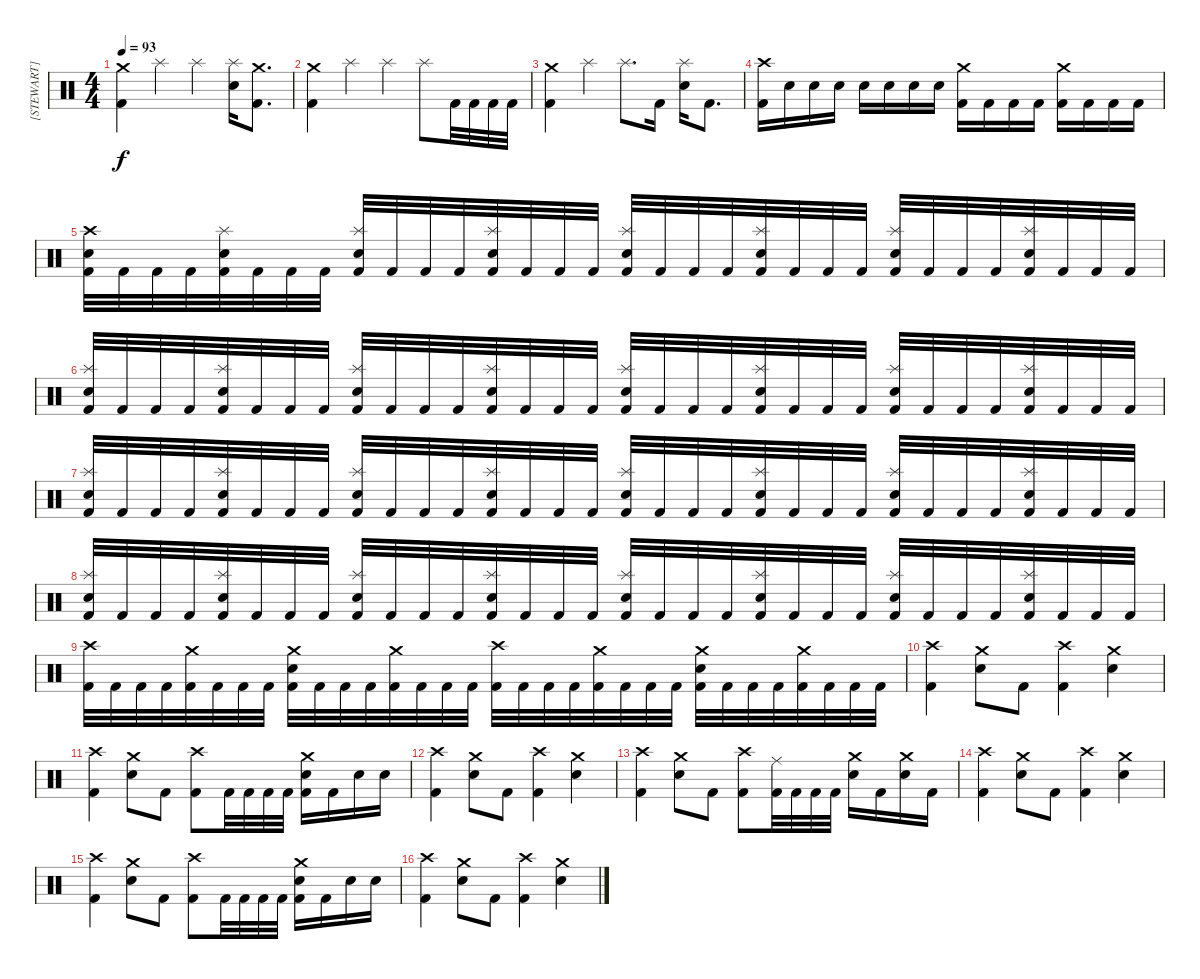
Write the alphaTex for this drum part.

\track ("[STEWART]" "[STEWART]") {instrument percussion}
\staff {score}
\articulation defaults
\ts (4 4)
\tempo 93
\clef neutral
\ks c
("Crash medium (hit)" "Kick (hit) 2").4{dy f} "Splash (hit)".4 "Splash (hit)".4 ("Splash (hit)" "Electric Snare (hit)").16 ("Crash medium (hit)" "Kick (hit) 2").8{d} |
("Crash medium (hit)" "Kick (hit) 2").4 "Splash (hit)".4 "Splash (hit)".4 "Splash (hit)".8 "Kick (hit) 2".32 "Kick (hit) 2".32 "Kick (hit) 2".32 "Kick (hit) 2".32 |
("Crash medium (hit)" "Kick (hit) 2").4 "Splash (hit)".4 "Splash (hit)".8{d} "Kick (hit) 2".16 ("Splash (hit)" "Electric Snare (hit)").16 "Kick (hit) 2".8{d} |
("Crash high (hit)" "Kick (hit) 2").16 "Electric Snare (hit)".16 "Electric Snare (hit)".16 "Electric Snare (hit)".16 "Electric Snare (hit)".16 "Electric Snare (hit)".16 "Electric Snare (hit)".16 "Electric Snare (hit)".16 ("Crash medium (hit)" "Kick (hit) 2").16 "Kick (hit) 2".16 "Kick (hit) 2".16 "Kick (hit) 2".16 ("Crash medium (hit)" "Kick (hit) 2").16 "Kick (hit) 2".16 "Kick (hit) 2".16 "Kick (hit) 2".16 |
("Crash high (hit)" "Electric Snare (hit)" "Kick (hit) 2").32 "Kick (hit) 2".32 "Kick (hit) 2".32 "Kick (hit) 2".32 ("Splash (hit)" "Electric Snare (hit)" "Kick (hit) 2").32 "Kick (hit) 2".32 "Kick (hit) 2".32 "Kick (hit) 2".32 ("Splash (hit)" "Electric Snare (hit)" "Kick (hit) 2").32 "Kick (hit) 2".32 "Kick (hit) 2".32 "Kick (hit) 2".32 ("Splash (hit)" "Electric Snare (hit)" "Kick (hit) 2").32 "Kick (hit) 2".32 "Kick (hit) 2".32 "Kick (hit) 2".32 ("Splash (hit)" "Electric Snare (hit)" "Kick (hit) 2").32 "Kick (hit) 2".32 "Kick (hit) 2".32 "Kick (hit) 2".32 ("Splash (hit)" "Electric Snare (hit)" "Kick (hit) 2").32 "Kick (hit) 2".32 "Kick (hit) 2".32 "Kick (hit) 2".32 ("Splash (hit)" "Electric Snare (hit)" "Kick (hit) 2").32 "Kick (hit) 2".32 "Kick (hit) 2".32 "Kick (hit) 2".32 ("Splash (hit)" "Electric Snare (hit)" "Kick (hit) 2").32 "Kick (hit) 2".32 "Kick (hit) 2".32 "Kick (hit) 2".32 |
("Splash (hit)" "Electric Snare (hit)" "Kick (hit) 2").32 "Kick (hit) 2".32 "Kick (hit) 2".32 "Kick (hit) 2".32 ("Splash (hit)" "Electric Snare (hit)" "Kick (hit) 2").32 "Kick (hit) 2".32 "Kick (hit) 2".32 "Kick (hit) 2".32 ("Splash (hit)" "Electric Snare (hit)" "Kick (hit) 2").32 "Kick (hit) 2".32 "Kick (hit) 2".32 "Kick (hit) 2".32 ("Splash (hit)" "Electric Snare (hit)" "Kick (hit) 2").32 "Kick (hit) 2".32 "Kick (hit) 2".32 "Kick (hit) 2".32 ("Splash (hit)" "Electric Snare (hit)" "Kick (hit) 2").32 "Kick (hit) 2".32 "Kick (hit) 2".32 "Kick (hit) 2".32 ("Splash (hit)" "Electric Snare (hit)" "Kick (hit) 2").32 "Kick (hit) 2".32 "Kick (hit) 2".32 "Kick (hit) 2".32 ("Splash (hit)" "Electric Snare (hit)" "Kick (hit) 2").32 "Kick (hit) 2".32 "Kick (hit) 2".32 "Kick (hit) 2".32 ("Splash (hit)" "Electric Snare (hit)" "Kick (hit) 2").32 "Kick (hit) 2".32 "Kick (hit) 2".32 "Kick (hit) 2".32 |
("Splash (hit)" "Electric Snare (hit)" "Kick (hit) 2").32 "Kick (hit) 2".32 "Kick (hit) 2".32 "Kick (hit) 2".32 ("Splash (hit)" "Electric Snare (hit)" "Kick (hit) 2").32 "Kick (hit) 2".32 "Kick (hit) 2".32 "Kick (hit) 2".32 ("Splash (hit)" "Electric Snare (hit)" "Kick (hit) 2").32 "Kick (hit) 2".32 "Kick (hit) 2".32 "Kick (hit) 2".32 ("Splash (hit)" "Electric Snare (hit)" "Kick (hit) 2").32 "Kick (hit) 2".32 "Kick (hit) 2".32 "Kick (hit) 2".32 ("Splash (hit)" "Electric Snare (hit)" "Kick (hit) 2").32 "Kick (hit) 2".32 "Kick (hit) 2".32 "Kick (hit) 2".32 ("Splash (hit)" "Electric Snare (hit)" "Kick (hit) 2").32 "Kick (hit) 2".32 "Kick (hit) 2".32 "Kick (hit) 2".32 ("Splash (hit)" "Electric Snare (hit)" "Kick (hit) 2").32 "Kick (hit) 2".32 "Kick (hit) 2".32 "Kick (hit) 2".32 ("Splash (hit)" "Electric Snare (hit)" "Kick (hit) 2").32 "Kick (hit) 2".32 "Kick (hit) 2".32 "Kick (hit) 2".32 |
("Splash (hit)" "Electric Snare (hit)" "Kick (hit) 2").32 "Kick (hit) 2".32 "Kick (hit) 2".32 "Kick (hit) 2".32 ("Splash (hit)" "Electric Snare (hit)" "Kick (hit) 2").32 "Kick (hit) 2".32 "Kick (hit) 2".32 "Kick (hit) 2".32 ("Splash (hit)" "Electric Snare (hit)" "Kick (hit) 2").32 "Kick (hit) 2".32 "Kick (hit) 2".32 "Kick (hit) 2".32 ("Splash (hit)" "Electric Snare (hit)" "Kick (hit) 2").32 "Kick (hit) 2".32 "Kick (hit) 2".32 "Kick (hit) 2".32 ("Splash (hit)" "Electric Snare (hit)" "Kick (hit) 2").32 "Kick (hit) 2".32 "Kick (hit) 2".32 "Kick (hit) 2".32 ("Splash (hit)" "Electric Snare (hit)" "Kick (hit) 2").32 "Kick (hit) 2".32 "Kick (hit) 2".32 "Kick (hit) 2".32 ("Splash (hit)" "Electric Snare (hit)" "Kick (hit) 2").32 "Kick (hit) 2".32 "Kick (hit) 2".32 "Kick (hit) 2".32 ("Splash (hit)" "Electric Snare (hit)" "Kick (hit) 2").32 "Kick (hit) 2".32 "Kick (hit) 2".32 "Kick (hit) 2".32 |
("Crash high (hit)" "Kick (hit) 2").32 "Kick (hit) 2".32 "Kick (hit) 2".32 "Kick (hit) 2".32 ("Crash medium (hit)" "Kick (hit) 2").32 "Kick (hit) 2".32 "Kick (hit) 2".32 "Kick (hit) 2".32 ("Crash medium (hit)" "Electric Snare (hit)" "Kick (hit) 2").32 "Kick (hit) 2".32 "Kick (hit) 2".32 "Kick (hit) 2".32 ("Crash medium (hit)" "Kick (hit) 2").32 "Kick (hit) 2".32 "Kick (hit) 2".32 "Kick (hit) 2".32 ("Crash high (hit)" "Kick (hit) 2").32 "Kick (hit) 2".32 "Kick (hit) 2".32 "Kick (hit) 2".32 ("Crash medium (hit)" "Kick (hit) 2").32 "Kick (hit) 2".32 "Kick (hit) 2".32 "Kick (hit) 2".32 ("Crash medium (hit)" "Electric Snare (hit)" "Kick (hit) 2").32 "Kick (hit) 2".32 "Kick (hit) 2".32 "Kick (hit) 2".32 ("Crash medium (hit)" "Kick (hit) 2").32 "Kick (hit) 2".32 "Kick (hit) 2".32 "Kick (hit) 2".32 |
("Crash high (hit)" "Kick (hit) 2").4 ("Crash medium (hit)" "Electric Snare (hit)").8 "Kick (hit) 2".8 ("Crash high (hit)" "Kick (hit) 2").4 ("Crash medium (hit)" "Electric Snare (hit)").4 |
("Crash high (hit)" "Kick (hit) 2").4 ("Crash medium (hit)" "Electric Snare (hit)").8 "Kick (hit) 2".8 ("Crash high (hit)" "Kick (hit) 2").8 "Kick (hit) 2".32 "Kick (hit) 2".32 "Kick (hit) 2".32 "Kick (hit) 2".32 ("Crash medium (hit)" "Electric Snare (hit)" "Kick (hit) 2").16 "Kick (hit) 2".16 "Electric Snare (hit)".16 "Electric Snare (hit)".16 |
("Crash high (hit)" "Kick (hit) 2").4 ("Crash medium (hit)" "Electric Snare (hit)").8 "Kick (hit) 2".8 ("Crash high (hit)" "Kick (hit) 2").4 ("Crash medium (hit)" "Electric Snare (hit)").4 |
("Crash high (hit)" "Kick (hit) 2").4 ("Crash medium (hit)" "Electric Snare (hit)").8 "Kick (hit) 2".8 ("Crash high (hit)" "Kick (hit) 2").8 ("Ride (middle)" "Kick (hit) 2").32 "Kick (hit) 2".32 "Kick (hit) 2".32 "Kick (hit) 2".32 ("Crash medium (hit)" "Electric Snare (hit)").16 "Kick (hit) 2".16 ("Crash medium (hit)" "Electric Snare (hit)").16 "Kick (hit) 2".16 |
("Crash high (hit)" "Kick (hit) 2").4 ("Crash medium (hit)" "Electric Snare (hit)").8 "Kick (hit) 2".8 ("Crash high (hit)" "Kick (hit) 2").4 ("Crash medium (hit)" "Electric Snare (hit)").4 |
("Crash high (hit)" "Kick (hit) 2").4 ("Crash medium (hit)" "Electric Snare (hit)").8 "Kick (hit) 2".8 ("Crash high (hit)" "Kick (hit) 2").8 "Kick (hit) 2".32 "Kick (hit) 2".32 "Kick (hit) 2".32 "Kick (hit) 2".32 ("Crash medium (hit)" "Electric Snare (hit)" "Kick (hit) 2").16 "Kick (hit) 2".16 "Electric Snare (hit)".16 "Electric Snare (hit)".16 |
("Crash high (hit)" "Kick (hit) 2").4 ("Crash medium (hit)" "Electric Snare (hit)").8 "Kick (hit) 2".8 ("Crash high (hit)" "Kick (hit) 2").4 ("Crash medium (hit)" "Electric Snare (hit)").4
